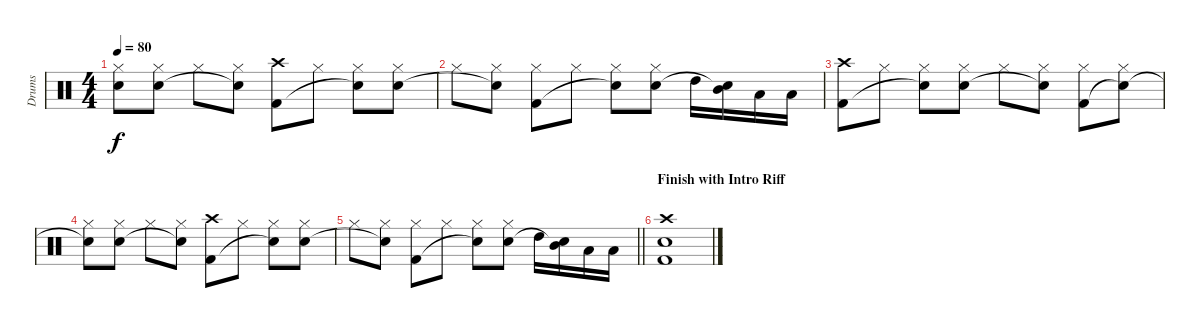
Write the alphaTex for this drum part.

\track ("Drums" "Drums") {instrument percussion}
\staff {score}
\articulation defaults
\ts (4 4)
\tempo 80
\clef neutral
\ks c
("Hi-Hat (closed)" "Snare (hit)"{t}).8{dy f} ("Hi-Hat (closed)" "Electric Snare (hit)").8 "Hi-Hat (closed)".8 ("Hi-Hat (closed)" "Snare (hit)"{t}).8 ("Crash high (hit)" "Kick (hit) 2").8 "Hi-Hat (closed)".8 ("Hi-Hat (closed)" "Snare (hit)"{t}).8 ("Hi-Hat (closed)" "Electric Snare (hit)").8 |
"Hi-Hat (closed)".8 ("Hi-Hat (closed)" "Snare (hit)"{t}).8 ("Hi-Hat (closed)" "Kick (hit) 2").8 "Hi-Hat (closed)".8 ("Hi-Hat (closed)" "Snare (hit)"{t}).8 ("Hi-Hat (closed)" "Electric Snare (hit)").8 "High Tom (hit)".16 ("Mid Tom (hit)" "Snare (hit)"{t}).16 "Low Tom (hit)".16 "Low Tom (hit)".16 |
("Crash high (hit)" "Kick (hit) 2").8 "Hi-Hat (closed)".8 ("Hi-Hat (closed)" "Snare (hit)"{t}).8 ("Hi-Hat (closed)" "Electric Snare (hit)").8 "Hi-Hat (closed)".8 ("Hi-Hat (closed)" "Snare (hit)"{t}).8 ("Hi-Hat (closed)" "Kick (hit) 2").8 ("Hi-Hat (closed)" "Snare (hit)"{t}).8 |
("Hi-Hat (closed)" "Snare (hit)"{t}).8 ("Hi-Hat (closed)" "Electric Snare (hit)").8 "Hi-Hat (closed)".8 ("Hi-Hat (closed)" "Snare (hit)"{t}).8 ("Crash high (hit)" "Kick (hit) 2").8 "Hi-Hat (closed)".8 ("Hi-Hat (closed)" "Snare (hit)"{t}).8 ("Hi-Hat (closed)" "Electric Snare (hit)").8 |
\barLineRight lightlight "Hi-Hat (closed)".8
("Hi-Hat (closed)" "Snare (hit)"{t}).8 ("Hi-Hat (closed)" "Kick (hit) 2").8 "Hi-Hat (closed)".8 ("Hi-Hat (closed)" "Snare (hit)"{t}).8 ("Hi-Hat (closed)" "Electric Snare (hit)").8 "High Tom (hit)".16 ("Mid Tom (hit)" "Snare (hit)"{t}).16 "Low Tom (hit)".16 "Low Tom (hit)".16 |
\section ("" "Finish with Intro Riff")
("Crash high (hit)" "Electric Snare (hit)" "Kick (hit) 2").1
